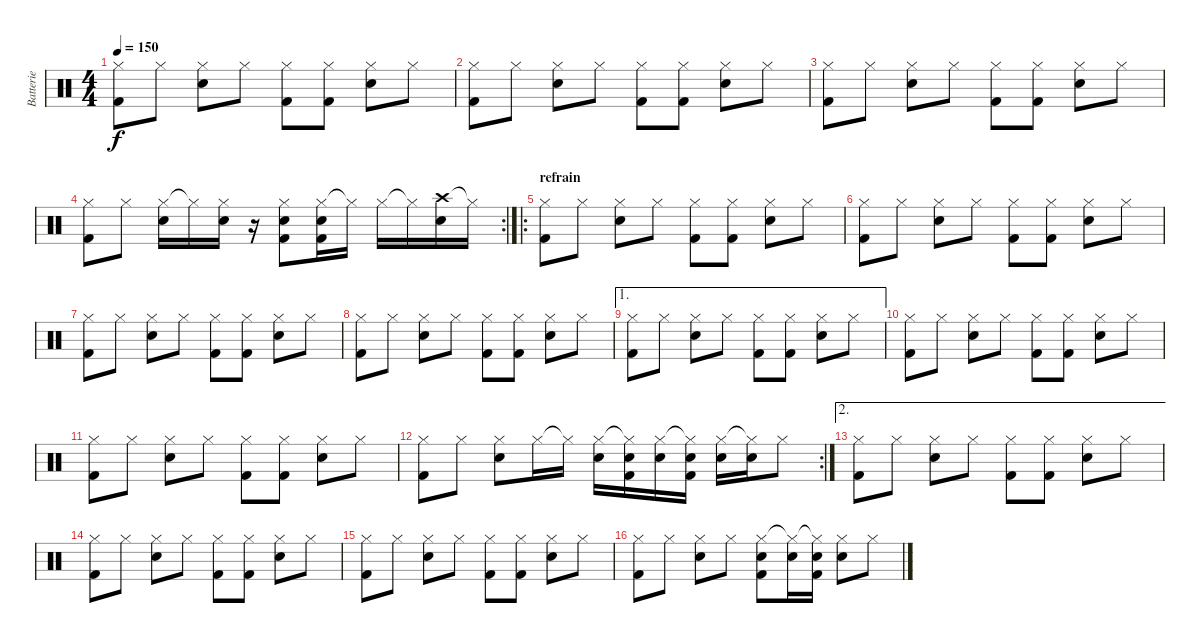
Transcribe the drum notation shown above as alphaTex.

\track ("Batterie" "Batterie") {instrument percussion}
\staff {score}
\articulation defaults
\ts (4 4)
\tempo 150
\clef neutral
\ks c
("Hi-Hat (closed)" "Kick (hit) 2").8{dy f} "Hi-Hat (closed)".8 ("Hi-Hat (closed)" "Electric Snare (hit)").8 "Hi-Hat (closed)".8 ("Hi-Hat (closed)" "Kick (hit) 2").8 ("Hi-Hat (closed)" "Kick (hit) 2").8 ("Hi-Hat (closed)" "Electric Snare (hit)").8 "Hi-Hat (closed)".8 |
("Hi-Hat (closed)" "Kick (hit) 2").8 "Hi-Hat (closed)".8 ("Hi-Hat (closed)" "Electric Snare (hit)").8 "Hi-Hat (closed)".8 ("Hi-Hat (closed)" "Kick (hit) 2").8 ("Hi-Hat (closed)" "Kick (hit) 2").8 ("Hi-Hat (closed)" "Electric Snare (hit)").8 "Hi-Hat (closed)".8 |
("Hi-Hat (closed)" "Kick (hit) 2").8 "Hi-Hat (closed)".8 ("Hi-Hat (closed)" "Electric Snare (hit)").8 "Hi-Hat (closed)".8 ("Hi-Hat (closed)" "Kick (hit) 2").8 ("Hi-Hat (closed)" "Kick (hit) 2").8 ("Hi-Hat (closed)" "Electric Snare (hit)").8 "Hi-Hat (closed)".8 |
\rc 2
("Hi-Hat (closed)" "Kick (hit) 2").8 "Hi-Hat (closed)".8 ("Hi-Hat (closed)" "Electric Snare (hit)").16 "Hi-Hat (closed)"{t}.16 ("Hi-Hat (closed)" "Electric Snare (hit)").16 r.16 ("Hi-Hat (closed)" "Electric Snare (hit)" "Kick (hit) 2").8 ("Hi-Hat (closed)" "Electric Snare (hit)" "Kick (hit) 2").16 "Hi-Hat (closed)"{t}.16 "Hi-Hat (closed)".16 "Hi-Hat (closed)"{t}.16 ("Crash high (hit)" "Electric Snare (hit)").16 "Hi-Hat (closed)"{t}.16 |
\ro
\section ("" "refrain")
("Hi-Hat (closed)" "Kick (hit) 2").8 "Hi-Hat (closed)".8 ("Hi-Hat (closed)" "Electric Snare (hit)").8 "Hi-Hat (closed)".8 ("Hi-Hat (closed)" "Kick (hit) 2").8 ("Hi-Hat (closed)" "Kick (hit) 2").8 ("Hi-Hat (closed)" "Electric Snare (hit)").8 "Hi-Hat (closed)".8 |
("Hi-Hat (closed)" "Kick (hit) 2").8 "Hi-Hat (closed)".8 ("Hi-Hat (closed)" "Electric Snare (hit)").8 "Hi-Hat (closed)".8 ("Hi-Hat (closed)" "Kick (hit) 2").8 ("Hi-Hat (closed)" "Kick (hit) 2").8 ("Hi-Hat (closed)" "Electric Snare (hit)").8 "Hi-Hat (closed)".8 |
("Hi-Hat (closed)" "Kick (hit) 2").8 "Hi-Hat (closed)".8 ("Hi-Hat (closed)" "Electric Snare (hit)").8 "Hi-Hat (closed)".8 ("Hi-Hat (closed)" "Kick (hit) 2").8 ("Hi-Hat (closed)" "Kick (hit) 2").8 ("Hi-Hat (closed)" "Electric Snare (hit)").8 "Hi-Hat (closed)".8 |
("Hi-Hat (closed)" "Kick (hit) 2").8 "Hi-Hat (closed)".8 ("Hi-Hat (closed)" "Electric Snare (hit)").8 "Hi-Hat (closed)".8 ("Hi-Hat (closed)" "Kick (hit) 2").8 ("Hi-Hat (closed)" "Kick (hit) 2").8 ("Hi-Hat (closed)" "Electric Snare (hit)").8 "Hi-Hat (closed)".8 |
\ae 1
("Hi-Hat (closed)" "Kick (hit) 2").8 "Hi-Hat (closed)".8 ("Hi-Hat (closed)" "Electric Snare (hit)").8 "Hi-Hat (closed)".8 ("Hi-Hat (closed)" "Kick (hit) 2").8 ("Hi-Hat (closed)" "Kick (hit) 2").8 ("Hi-Hat (closed)" "Electric Snare (hit)").8 "Hi-Hat (closed)".8 |
("Hi-Hat (closed)" "Kick (hit) 2").8 "Hi-Hat (closed)".8 ("Hi-Hat (closed)" "Electric Snare (hit)").8 "Hi-Hat (closed)".8 ("Hi-Hat (closed)" "Kick (hit) 2").8 ("Hi-Hat (closed)" "Kick (hit) 2").8 ("Hi-Hat (closed)" "Electric Snare (hit)").8 "Hi-Hat (closed)".8 |
("Hi-Hat (closed)" "Kick (hit) 2").8 "Hi-Hat (closed)".8 ("Hi-Hat (closed)" "Electric Snare (hit)").8 "Hi-Hat (closed)".8 ("Hi-Hat (closed)" "Kick (hit) 2").8 ("Hi-Hat (closed)" "Kick (hit) 2").8 ("Hi-Hat (closed)" "Electric Snare (hit)").8 "Hi-Hat (closed)".8 |
\rc 2
("Hi-Hat (closed)" "Kick (hit) 2").8 "Hi-Hat (closed)".8 ("Hi-Hat (closed)" "Electric Snare (hit)").8 "Hi-Hat (closed)".16 "Hi-Hat (closed)"{t}.16 ("Hi-Hat (closed)" "Electric Snare (hit)").16 ("Hi-Hat (closed)"{t} "Electric Snare (hit)" "Kick (hit) 2").16 ("Hi-Hat (closed)" "Electric Snare (hit)").16 ("Hi-Hat (closed)"{t} "Electric Snare (hit)" "Kick (hit) 2").16 ("Hi-Hat (closed)" "Electric Snare (hit)").16 ("Hi-Hat (closed)"{t} "Electric Snare (hit)").16 "Hi-Hat (closed)".8 |
\ae 2
("Hi-Hat (closed)" "Kick (hit) 2").8 "Hi-Hat (closed)".8 ("Hi-Hat (closed)" "Electric Snare (hit)").8 "Hi-Hat (closed)".8 ("Hi-Hat (closed)" "Kick (hit) 2").8 ("Hi-Hat (closed)" "Kick (hit) 2").8 ("Hi-Hat (closed)" "Electric Snare (hit)").8 "Hi-Hat (closed)".8 |
("Hi-Hat (closed)" "Kick (hit) 2").8 "Hi-Hat (closed)".8 ("Hi-Hat (closed)" "Electric Snare (hit)").8 "Hi-Hat (closed)".8 ("Hi-Hat (closed)" "Kick (hit) 2").8 ("Hi-Hat (closed)" "Kick (hit) 2").8 ("Hi-Hat (closed)" "Electric Snare (hit)").8 "Hi-Hat (closed)".8 |
("Hi-Hat (closed)" "Kick (hit) 2").8 "Hi-Hat (closed)".8 ("Hi-Hat (closed)" "Electric Snare (hit)").8 "Hi-Hat (closed)".8 ("Hi-Hat (closed)" "Kick (hit) 2").8 ("Hi-Hat (closed)" "Kick (hit) 2").8 ("Hi-Hat (closed)" "Electric Snare (hit)").8 "Hi-Hat (closed)".8 |
("Hi-Hat (closed)" "Kick (hit) 2").8 "Hi-Hat (closed)".8 ("Hi-Hat (closed)" "Electric Snare (hit)").8 "Hi-Hat (closed)".8 ("Hi-Hat (closed)" "Electric Snare (hit)" "Kick (hit) 2").8 ("Hi-Hat (closed)"{t} "Electric Snare (hit)").16 ("Hi-Hat (closed)"{t} "Electric Snare (hit)" "Kick (hit) 2").16 ("Hi-Hat (closed)" "Electric Snare (hit)").8 "Hi-Hat (closed)".8
